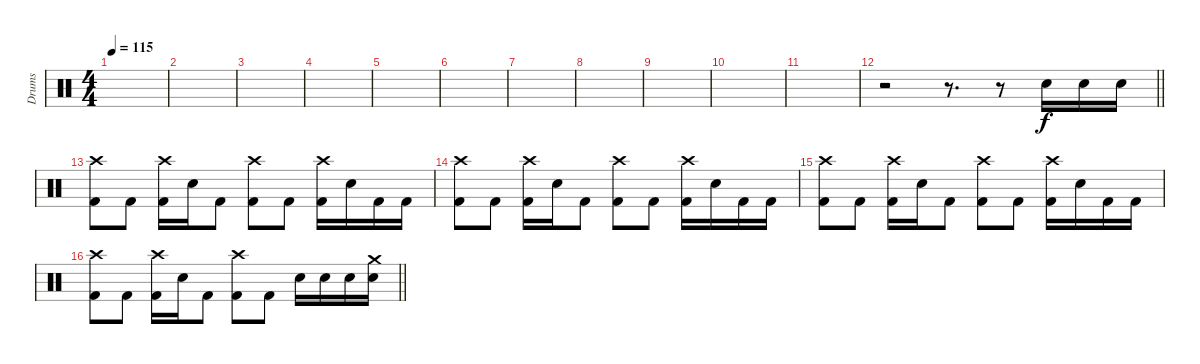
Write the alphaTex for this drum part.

\track ("Drums" "Drums") {instrument percussion}
\staff {score}
\articulation defaults
\ts (4 4)
\tempo 115
\clef neutral
\ks c
|
|
|
|
|
|
|
|
|
|
|
\barLineRight lightlight
r.2 r.8{d} r.8 "Snare (hit) 2".16 "Snare (hit) 2".16 "Snare (hit) 2".16 |
("Crash high (hit)" "Kick (hit) 2").8 "Kick (hit) 2".8 ("Crash high (hit)" "Kick (hit) 2").16 "Snare (hit) 2".16 "Kick (hit) 2".8 ("Crash high (hit)" "Kick (hit) 2").8 "Kick (hit) 2".8 ("Crash high (hit)" "Kick (hit) 2").16 "Snare (hit) 2".16 "Kick (hit) 2".16 "Kick (hit) 2".16 |
("Crash high (hit)" "Kick (hit) 2").8 "Kick (hit) 2".8 ("Crash high (hit)" "Kick (hit) 2").16 "Snare (hit) 2".16 "Kick (hit) 2".8 ("Crash high (hit)" "Kick (hit) 2").8 "Kick (hit) 2".8 ("Crash high (hit)" "Kick (hit) 2").16 "Snare (hit) 2".16 "Kick (hit) 2".16 "Kick (hit) 2".16 |
("Crash high (hit)" "Kick (hit) 2").8 "Kick (hit) 2".8 ("Crash high (hit)" "Kick (hit) 2").16 "Snare (hit) 2".16 "Kick (hit) 2".8 ("Crash high (hit)" "Kick (hit) 2").8 "Kick (hit) 2".8 ("Crash high (hit)" "Kick (hit) 2").16 "Snare (hit) 2".16 "Kick (hit) 2".16 "Kick (hit) 2".16 |
\barLineRight lightlight
("Crash high (hit)" "Kick (hit) 2").8 "Kick (hit) 2".8 ("Crash high (hit)" "Kick (hit) 2").16 "Snare (hit) 2".16 "Kick (hit) 2".8 ("Crash high (hit)" "Kick (hit) 2").8 "Kick (hit) 2".8 "Snare (hit) 2".16 "Snare (hit) 2".16 "Snare (hit) 2".16 ("Crash medium (hit)" "Snare (hit) 2").16
